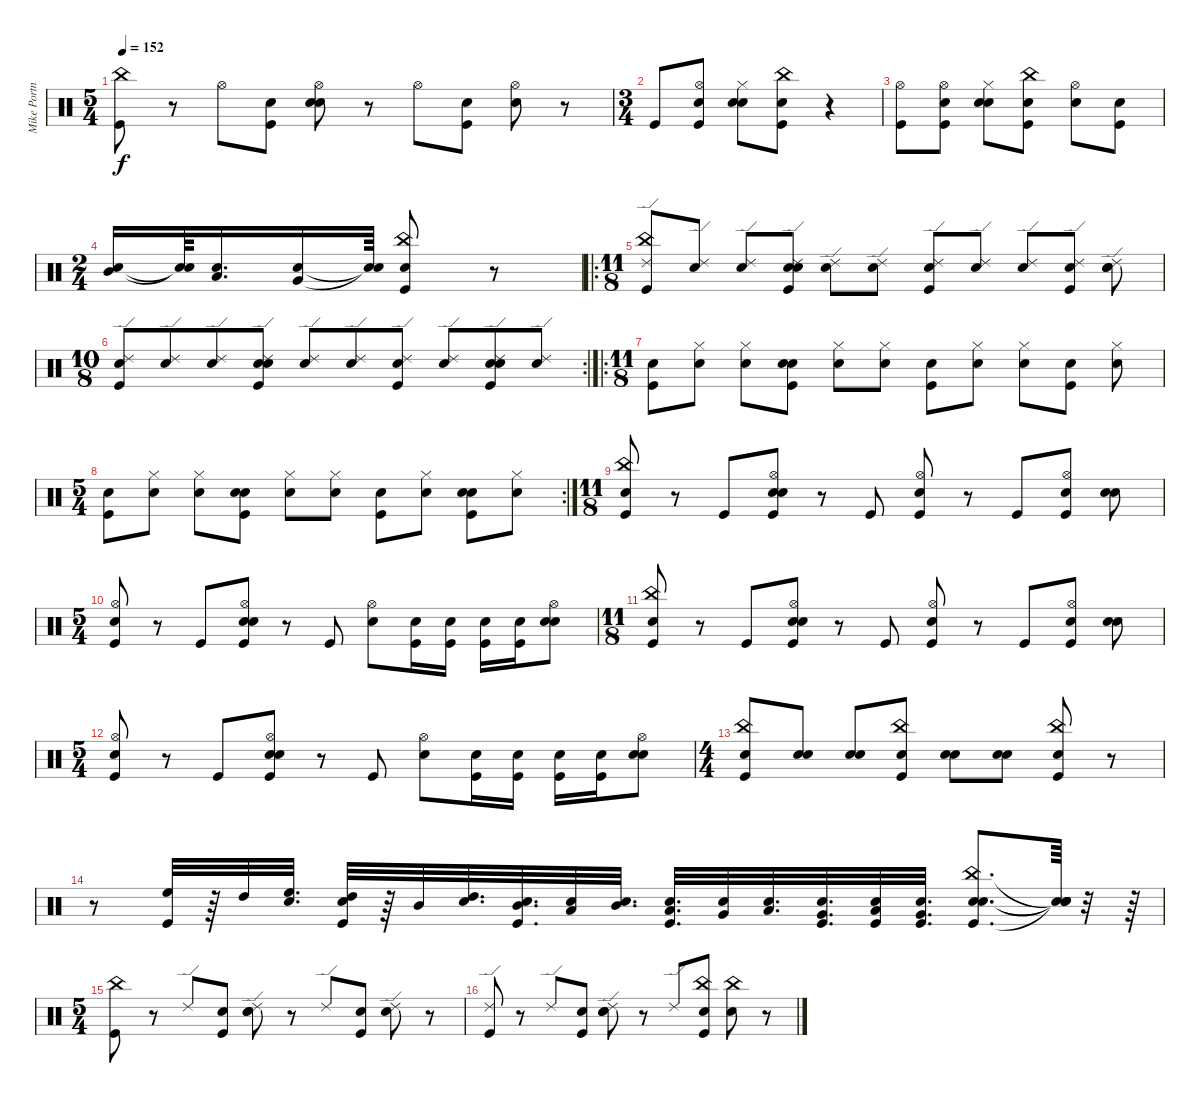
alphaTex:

\track ("Mike Portnoy" "Mike Portn") {instrument percussion}
\staff {score}
\articulation defaults
\ts (5 4)
\tempo 152
\clef neutral
\ks c
("Kick (hit)" "China (hit)").8{dy f} r.8 "Hi-Hat (open)".8 ("Snare (hit)" "Kick (hit)").8 ("Snare (hit)" "Snare (hit) 2" "Hi-Hat (open)").8 r.8 "Hi-Hat (open)".8 ("Snare (hit)" "Kick (hit)").8 ("Snare (hit)" "Hi-Hat (open)").8 r.8 |
\ts (3 4)
"Kick (hit)".8 ("Snare (hit)" "Kick (hit)" "Hi-Hat (open)").8 ("Snare (hit)" "Snare (hit) 2" "Hi-Hat (closed)").8 ("Snare (hit)" "Kick (hit)" "China (hit)").8 r.4 |
("Kick (hit)" "Hi-Hat (open)").8 ("Snare (hit)" "Kick (hit)" "Hi-Hat (open)").8 ("Snare (hit)" "Snare (hit) 2" "Hi-Hat (closed)").8 ("Snare (hit)" "Kick (hit)" "China (hit)").8 ("Snare (hit)" "Hi-Hat (open)").8 ("Snare (hit)" "Kick (hit)").8 |
\ts (2 4)
("Snare (hit)" "Mid Tom (hit)").16 ("Snare (hit)"{t} "Snare (hit)"{t}).64 ("Snare (hit)" "Low Tom (hit)").16{d} ("Snare (hit)" "Very Low Tom (hit)").16 ("Snare (hit)"{t} "Snare (hit)"{t}).64 ("Snare (hit)" "Kick (hit)" "China (hit)").8 r.8 |
\ro
\ts (11 8)
("Kick (hit)" "China (hit)" "Ride (edge) 2").8 ("Snare (hit)" "Ride (edge) 2").8 ("Snare (hit)" "Ride (edge) 2").8 ("Snare (hit)" "Kick (hit)" "Snare (hit) 2" "Ride (edge) 2").8 ("Snare (hit)" "Ride (edge) 2").8 ("Snare (hit)" "Ride (edge) 2").8 ("Snare (hit)" "Kick (hit)" "Ride (edge) 2").8 ("Snare (hit)" "Ride (edge) 2").8 ("Snare (hit)" "Ride (edge) 2").8 ("Snare (hit)" "Kick (hit)" "Ride (edge) 2").8 ("Snare (hit)" "Snare (hit) 2" "Ride (edge) 2").8 |
\rc 2
\ts (10 8)
("Snare (hit)" "Kick (hit)" "Ride (edge) 2").8 ("Snare (hit)" "Ride (edge) 2").8 ("Snare (hit)" "Ride (edge) 2").8 ("Snare (hit)" "Kick (hit)" "Snare (hit) 2" "Ride (edge) 2").8 ("Snare (hit)" "Ride (edge) 2").8 ("Snare (hit)" "Ride (edge) 2").8 ("Snare (hit)" "Kick (hit)" "Ride (edge) 2").8 ("Snare (hit)" "Ride (edge) 2").8 ("Snare (hit)" "Kick (hit)" "Snare (hit) 2" "Ride (edge) 2").8 ("Snare (hit)" "Ride (edge) 2").8 |
\ro
\ts (11 8)
("Snare (hit)" "Kick (hit)").8 ("Snare (hit)" "Hi-Hat (closed)").8 ("Snare (hit)" "Hi-Hat (closed)").8 ("Snare (hit)" "Kick (hit)" "Snare (hit) 2").8 ("Snare (hit)" "Hi-Hat (closed)").8 ("Snare (hit)" "Hi-Hat (closed)").8 ("Snare (hit)" "Kick (hit)").8 ("Snare (hit)" "Hi-Hat (closed)").8 ("Snare (hit)" "Hi-Hat (closed)").8 ("Snare (hit)" "Kick (hit)").8 ("Snare (hit)" "Hi-Hat (closed)").8 |
\rc 2
\ts (5 4)
("Snare (hit)" "Kick (hit)").8 ("Snare (hit)" "Hi-Hat (closed)").8 ("Snare (hit)" "Hi-Hat (closed)").8 ("Snare (hit)" "Kick (hit)" "Snare (hit) 2").8 ("Snare (hit)" "Hi-Hat (closed)").8 ("Snare (hit)" "Hi-Hat (closed)").8 ("Snare (hit)" "Kick (hit)").8 ("Snare (hit)" "Hi-Hat (closed)").8 ("Snare (hit)" "Kick (hit)" "Snare (hit) 2").8 ("Snare (hit)" "Hi-Hat (closed)").8 |
\ts (11 8)
("Snare (hit)" "Kick (hit)" "China (hit)").8 r.8 "Kick (hit)".8 ("Snare (hit)" "Kick (hit)" "Snare (hit) 2" "Hi-Hat (open)").8 r.8 "Kick (hit)".8 ("Snare (hit)" "Kick (hit)" "Hi-Hat (open)").8 r.8 "Kick (hit)".8 ("Snare (hit)" "Kick (hit)" "Hi-Hat (open)").8 ("Snare (hit)" "Snare (hit) 2").8 |
\ts (5 4)
("Snare (hit)" "Kick (hit)" "Hi-Hat (open)").8 r.8 "Kick (hit)".8 ("Snare (hit)" "Kick (hit)" "Snare (hit) 2" "Hi-Hat (open)").8 r.8 "Kick (hit)".8 ("Snare (hit)" "Hi-Hat (open)").8 ("Snare (hit)" "Kick (hit)").16 ("Snare (hit)" "Kick (hit)").16 ("Snare (hit)" "Kick (hit)").16 ("Snare (hit)" "Kick (hit)").16 ("Snare (hit)" "Snare (hit) 2" "Hi-Hat (open)").8 |
\ts (11 8)
("Snare (hit)" "Kick (hit)" "China (hit)").8 r.8 "Kick (hit)".8 ("Snare (hit)" "Kick (hit)" "Snare (hit) 2" "Hi-Hat (open)").8 r.8 "Kick (hit)".8 ("Snare (hit)" "Kick (hit)" "Hi-Hat (open)").8 r.8 "Kick (hit)".8 ("Snare (hit)" "Kick (hit)" "Hi-Hat (open)").8 ("Snare (hit)" "Snare (hit) 2").8 |
\ts (5 4)
("Snare (hit)" "Kick (hit)" "Hi-Hat (open)").8 r.8 "Kick (hit)".8 ("Snare (hit)" "Kick (hit)" "Snare (hit) 2" "Hi-Hat (open)").8 r.8 "Kick (hit)".8 ("Snare (hit)" "Hi-Hat (open)").8 ("Snare (hit)" "Kick (hit)").16 ("Snare (hit)" "Kick (hit)").16 ("Snare (hit)" "Kick (hit)").16 ("Snare (hit)" "Kick (hit)").16 ("Snare (hit)" "Snare (hit) 2" "Hi-Hat (open)").8 |
\ts (4 4)
("Snare (hit)" "Kick (hit)" "China (hit)").8 ("Snare (hit)" "Snare (hit) 2").8 ("Snare (hit)" "Snare (hit) 2").8 ("Snare (hit)" "Kick (hit)" "China (hit)").8 ("Snare (hit)" "Snare (hit) 2").8 ("Snare (hit)" "Snare (hit) 2").8 ("Snare (hit)" "Kick (hit)" "China (hit)").8 r.8 |
r.8 ("Kick (hit)" "High Floor Tom (hit)").32 r.64 "High Tom (hit)".32 ("Snare (hit)" "High Floor Tom (hit)").32{d} ("Snare (hit)" "Kick (hit)" "High Tom (hit)").32 r.64 "Mid Tom (hit)".32 ("Snare (hit)" "High Tom (hit)").32{d} ("Snare (hit)" "Kick (hit)" "Mid Tom (hit)").32{d} ("Snare (hit)" "Low Tom (hit)").32 ("Snare (hit)" "Mid Tom (hit)").32{d} ("Snare (hit)" "Kick (hit)" "Low Tom (hit)").32{d} ("Snare (hit)" "Very Low Tom (hit)").32 ("Snare (hit)" "Low Tom (hit)").32{d} ("Snare (hit)" "Kick (hit)" "Very Low Tom (hit)").32{d} ("Snare (hit)" "Kick (hit)" "Low Floor Tom (hit)").32 ("Snare (hit)" "Kick (hit)" "Very Low Tom (hit)").32{d} ("Snare (hit)" "Kick (hit)" "Snare (hit) 2" "China (hit)").8{d} ("Snare (hit)"{t} "Snare (hit)"{t} "Snare (hit)"{t} "Snare (hit)"{t}).64 r.32 r.64 |
\ts (5 4)
("Kick (hit)" "China (hit)").8 r.8 "Ride (edge) 2".8 ("Snare (hit)" "Kick (hit)").8 ("Snare (hit)" "Snare (hit) 2" "Ride (edge) 2").8 r.8 "Ride (edge) 2".8 ("Snare (hit)" "Kick (hit)").8 ("Snare (hit)" "Ride (edge) 2").8 r.8 |
("Kick (hit)" "Ride (edge) 2").8 r.8 "Ride (edge) 2".8 ("Snare (hit)" "Kick (hit)").8 ("Snare (hit)" "Snare (hit) 2" "Ride (edge) 2").8 r.8 "Ride (edge) 2".8 ("Snare (hit)" "Kick (hit)" "China (hit)").8 ("Snare (hit)" "China (hit)").8 r.8
